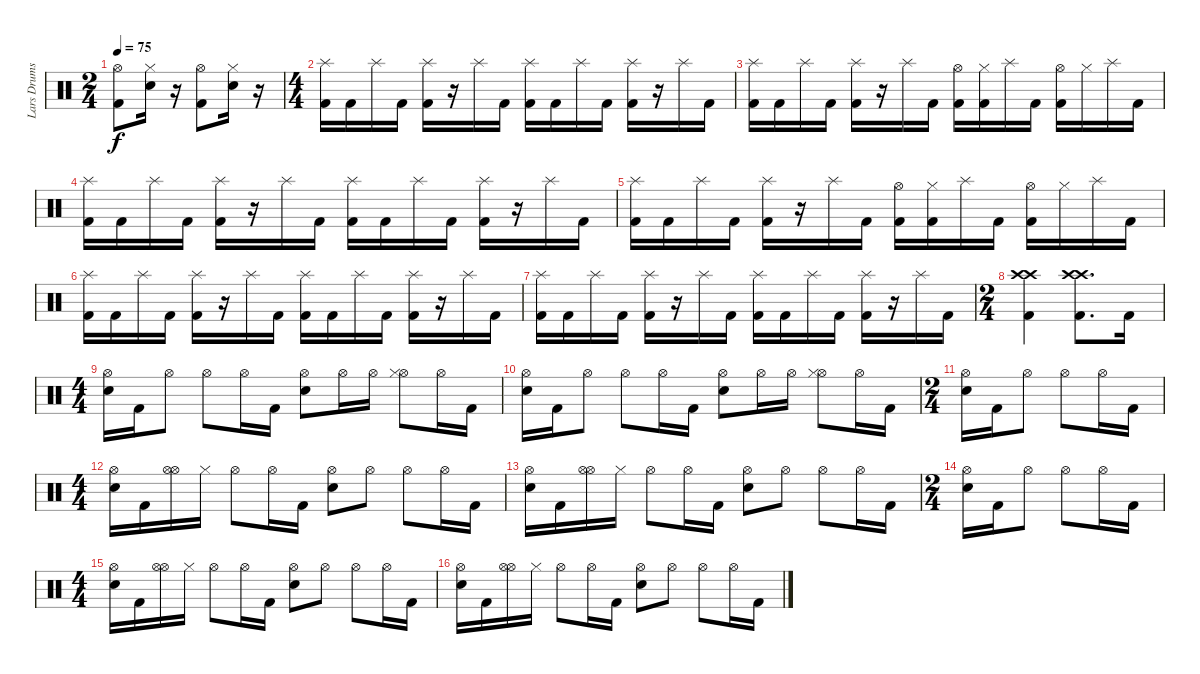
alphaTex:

\track ("Lars Drums" "Lars Drums") {instrument percussion}
\staff {score}
\articulation defaults
\ts (2 4)
\tempo 75
\clef neutral
\ks c
("Hi-Hat (open)" "Kick (hit) 2").8{dy f} ("Hi-Hat (closed)" "Snare (hit) 2").16 r.16 ("Hi-Hat (open)" "Kick (hit) 2").8 ("Hi-Hat (closed)" "Snare (hit) 2").16 r.16 |
\ts (4 4)
("Splash (hit)" "Kick (hit) 2").16 "Kick (hit) 2".16 "Splash (hit)".16 "Kick (hit) 2".16 ("Splash (hit)" "Kick (hit) 2").16 r.16 "Splash (hit)".16 "Kick (hit) 2".16 ("Splash (hit)" "Kick (hit) 2").16 "Kick (hit) 2".16 "Splash (hit)".16 "Kick (hit) 2".16 ("Splash (hit)" "Kick (hit) 2").16 r.16 "Splash (hit)".16 "Kick (hit) 2".16 |
("Splash (hit)" "Kick (hit) 2").16 "Kick (hit) 2".16 "Splash (hit)".16 "Kick (hit) 2".16 ("Splash (hit)" "Kick (hit) 2").16 r.16 "Splash (hit)".16 "Kick (hit) 2".16 ("Hi-Hat (open)" "Kick (hit) 2").16 ("Hi-Hat (closed)" "Kick (hit) 2").16 "Splash (hit)".16 "Kick (hit) 2".16 ("Hi-Hat (open)" "Kick (hit) 2").16 "Hi-Hat (closed)".16 "Splash (hit)".16 "Kick (hit) 2".16 |
("Splash (hit)" "Kick (hit) 2").16 "Kick (hit) 2".16 "Splash (hit)".16 "Kick (hit) 2".16 ("Splash (hit)" "Kick (hit) 2").16 r.16 "Splash (hit)".16 "Kick (hit) 2".16 ("Splash (hit)" "Kick (hit) 2").16 "Kick (hit) 2".16 "Splash (hit)".16 "Kick (hit) 2".16 ("Splash (hit)" "Kick (hit) 2").16 r.16 "Splash (hit)".16 "Kick (hit) 2".16 |
("Splash (hit)" "Kick (hit) 2").16 "Kick (hit) 2".16 "Splash (hit)".16 "Kick (hit) 2".16 ("Splash (hit)" "Kick (hit) 2").16 r.16 "Splash (hit)".16 "Kick (hit) 2".16 ("Hi-Hat (open)" "Kick (hit) 2").16 ("Hi-Hat (closed)" "Kick (hit) 2").16 "Splash (hit)".16 "Kick (hit) 2".16 ("Hi-Hat (open)" "Kick (hit) 2").16 "Hi-Hat (closed)".16 "Splash (hit)".16 "Kick (hit) 2".16 |
("Splash (hit)" "Kick (hit) 2").16 "Kick (hit) 2".16 "Splash (hit)".16 "Kick (hit) 2".16 ("Splash (hit)" "Kick (hit) 2").16 r.16 "Splash (hit)".16 "Kick (hit) 2".16 ("Splash (hit)" "Kick (hit) 2").16 "Kick (hit) 2".16 "Splash (hit)".16 "Kick (hit) 2".16 ("Splash (hit)" "Kick (hit) 2").16 r.16 "Splash (hit)".16 "Kick (hit) 2".16 |
("Splash (hit)" "Kick (hit) 2").16 "Kick (hit) 2".16 "Splash (hit)".16 "Kick (hit) 2".16 ("Splash (hit)" "Kick (hit) 2").16 r.16 "Splash (hit)".16 "Kick (hit) 2".16 ("Splash (hit)" "Kick (hit) 2").16 "Kick (hit) 2".16 "Splash (hit)".16 "Kick (hit) 2".16 ("Splash (hit)" "Kick (hit) 2").16 r.16 "Splash (hit)".16 "Kick (hit) 2".16 |
\ts (2 4)
("Crash high (hit)" "Crash high (hit)" "Kick (hit) 2").4 ("Crash high (hit)" "Crash high (hit)" "Kick (hit) 2").8{d} "Kick (hit) 2".16 |
\ts (4 4)
("Hi-Hat (open)" "Snare (hit) 2").16 "Kick (hit) 2".16 "Hi-Hat (open)".8 "Hi-Hat (open)".8 "Hi-Hat (open)".16 "Kick (hit) 2".16 ("Hi-Hat (open)" "Snare (hit) 2").8 "Hi-Hat (open)".16 "Hi-Hat (open)".16 ("Hi-Hat (open)" "Hi-Hat (closed)").8 "Hi-Hat (open)".16 "Kick (hit) 2".16 |
("Hi-Hat (open)" "Snare (hit) 2").16 "Kick (hit) 2".16 "Hi-Hat (open)".8 "Hi-Hat (open)".8 "Hi-Hat (open)".16 "Kick (hit) 2".16 ("Hi-Hat (open)" "Snare (hit) 2").8 "Hi-Hat (open)".16 "Hi-Hat (open)".16 ("Hi-Hat (open)" "Hi-Hat (closed)").8 "Hi-Hat (open)".16 "Kick (hit) 2".16 |
\ts (2 4)
("Hi-Hat (open)" "Snare (hit) 2").16 "Kick (hit) 2".16 "Hi-Hat (open)".8 "Hi-Hat (open)".8 "Hi-Hat (open)".16 "Kick (hit) 2".16 |
\ts (4 4)
("Hi-Hat (open)" "Snare (hit) 2").16 "Kick (hit) 2".16 ("Hi-Hat (open)" "Hi-Hat (open)").16 "Hi-Hat (closed)".16 "Hi-Hat (open)".8 "Hi-Hat (open)".16 "Kick (hit) 2".16 ("Hi-Hat (open)" "Snare (hit) 2").8 "Hi-Hat (open)".8 "Hi-Hat (open)".8 "Hi-Hat (open)".16 "Kick (hit) 2".16 |
("Hi-Hat (open)" "Snare (hit) 2").16 "Kick (hit) 2".16 ("Hi-Hat (open)" "Hi-Hat (open)").16 "Hi-Hat (closed)".16 "Hi-Hat (open)".8 "Hi-Hat (open)".16 "Kick (hit) 2".16 ("Hi-Hat (open)" "Snare (hit) 2").8 "Hi-Hat (open)".8 "Hi-Hat (open)".8 "Hi-Hat (open)".16 "Kick (hit) 2".16 |
\ts (2 4)
("Hi-Hat (open)" "Snare (hit) 2").16 "Kick (hit) 2".16 "Hi-Hat (open)".8 "Hi-Hat (open)".8 "Hi-Hat (open)".16 "Kick (hit) 2".16 |
\ts (4 4)
("Hi-Hat (open)" "Snare (hit) 2").16 "Kick (hit) 2".16 ("Hi-Hat (open)" "Hi-Hat (open)").16 "Hi-Hat (closed)".16 "Hi-Hat (open)".8 "Hi-Hat (open)".16 "Kick (hit) 2".16 ("Hi-Hat (open)" "Snare (hit) 2").8 "Hi-Hat (open)".8 "Hi-Hat (open)".8 "Hi-Hat (open)".16 "Kick (hit) 2".16 |
("Hi-Hat (open)" "Snare (hit) 2").16 "Kick (hit) 2".16 ("Hi-Hat (open)" "Hi-Hat (open)").16 "Hi-Hat (closed)".16 "Hi-Hat (open)".8 "Hi-Hat (open)".16 "Kick (hit) 2".16 ("Hi-Hat (open)" "Snare (hit) 2").8 "Hi-Hat (open)".8 "Hi-Hat (open)".8 "Hi-Hat (open)".16 "Kick (hit) 2".16
